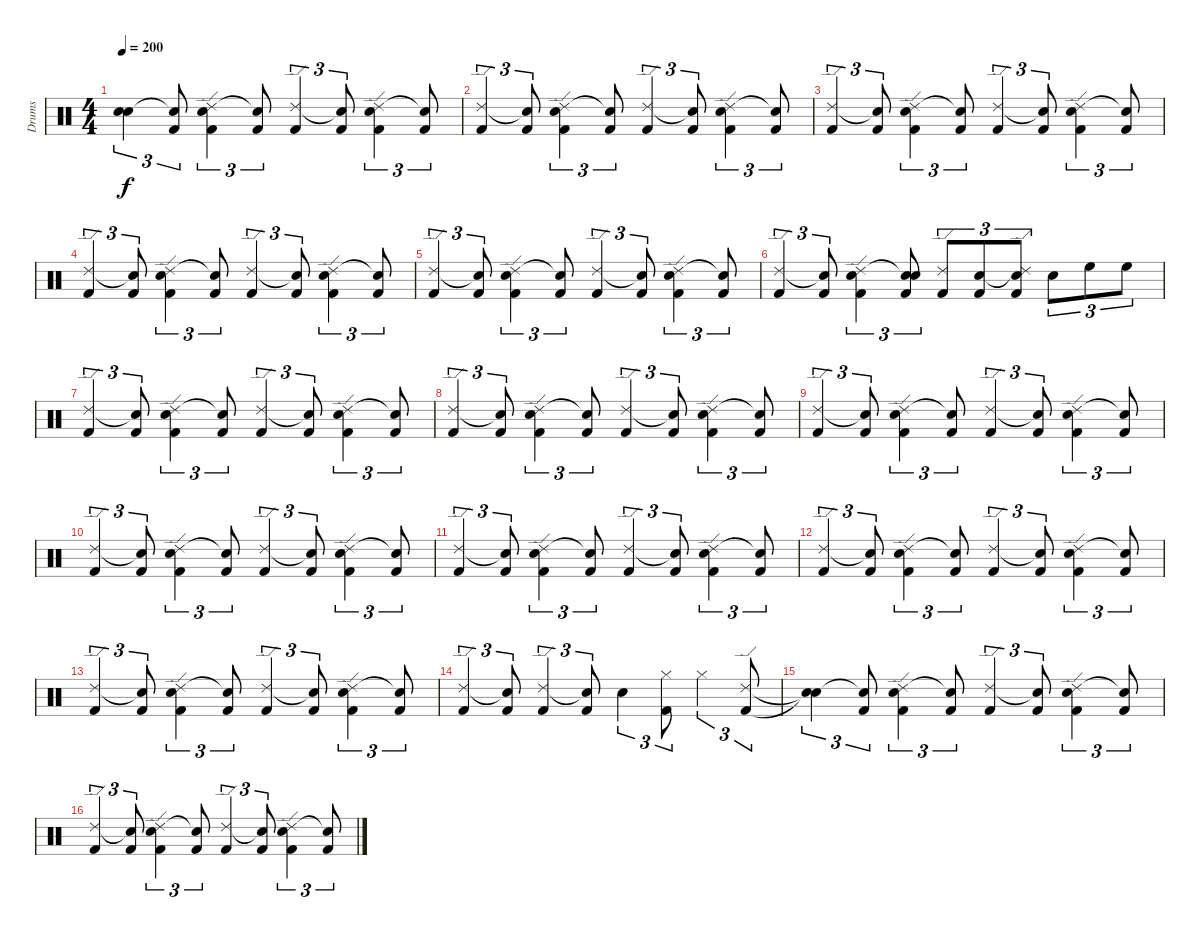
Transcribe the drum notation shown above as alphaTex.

\track ("Drums" "Drums") {instrument percussion}
\staff {score}
\articulation defaults
\ts (4 4)
\tempo 200
\clef neutral
\ks c
("Snare (hit)"{t} "Snare (hit)"{t}).4{tu (3 2) dy f} ("Snare (hit)"{t} "Kick (hit) 2").8{tu (3 2)} ("Ride (edge) 2" "Snare (hit) 2" "Kick (hit) 2").4{tu (3 2)} ("Snare (hit)"{t} "Kick (hit) 2").8{tu (3 2)} ("Ride (edge) 2" "Kick (hit) 2").4{tu (3 2)} ("Snare (hit)"{t} "Kick (hit) 2").8{tu (3 2)} ("Ride (edge) 2" "Snare (hit) 2" "Kick (hit) 2").4{tu (3 2)} ("Snare (hit)"{t} "Kick (hit) 2").8{tu (3 2)} |
("Ride (edge) 2" "Kick (hit) 2").4{tu (3 2)} ("Snare (hit)"{t} "Kick (hit) 2").8{tu (3 2)} ("Ride (edge) 2" "Snare (hit) 2" "Kick (hit) 2").4{tu (3 2)} ("Snare (hit)"{t} "Kick (hit) 2").8{tu (3 2)} ("Ride (edge) 2" "Kick (hit) 2").4{tu (3 2)} ("Snare (hit)"{t} "Kick (hit) 2").8{tu (3 2)} ("Ride (edge) 2" "Snare (hit) 2" "Kick (hit) 2").4{tu (3 2)} ("Snare (hit)"{t} "Kick (hit) 2").8{tu (3 2)} |
("Ride (edge) 2" "Kick (hit) 2").4{tu (3 2)} ("Snare (hit)"{t} "Kick (hit) 2").8{tu (3 2)} ("Ride (edge) 2" "Snare (hit) 2" "Kick (hit) 2").4{tu (3 2)} ("Snare (hit)"{t} "Kick (hit) 2").8{tu (3 2)} ("Ride (edge) 2" "Kick (hit) 2").4{tu (3 2)} ("Snare (hit)"{t} "Kick (hit) 2").8{tu (3 2)} ("Ride (edge) 2" "Snare (hit) 2" "Kick (hit) 2").4{tu (3 2)} ("Snare (hit)"{t} "Kick (hit) 2").8{tu (3 2)} |
("Ride (edge) 2" "Kick (hit) 2").4{tu (3 2)} ("Snare (hit)"{t} "Kick (hit) 2").8{tu (3 2)} ("Ride (edge) 2" "Snare (hit) 2" "Kick (hit) 2").4{tu (3 2)} ("Snare (hit)"{t} "Kick (hit) 2").8{tu (3 2)} ("Ride (edge) 2" "Kick (hit) 2").4{tu (3 2)} ("Snare (hit)"{t} "Kick (hit) 2").8{tu (3 2)} ("Ride (edge) 2" "Snare (hit) 2" "Kick (hit) 2").4{tu (3 2)} ("Snare (hit)"{t} "Kick (hit) 2").8{tu (3 2)} |
("Ride (edge) 2" "Kick (hit) 2").4{tu (3 2)} ("Snare (hit)"{t} "Kick (hit) 2").8{tu (3 2)} ("Ride (edge) 2" "Snare (hit) 2" "Kick (hit) 2").4{tu (3 2)} ("Snare (hit)"{t} "Kick (hit) 2").8{tu (3 2)} ("Ride (edge) 2" "Kick (hit) 2").4{tu (3 2)} ("Snare (hit)"{t} "Kick (hit) 2").8{tu (3 2)} ("Ride (edge) 2" "Snare (hit) 2" "Kick (hit) 2").4{tu (3 2)} ("Snare (hit)"{t} "Kick (hit) 2").8{tu (3 2)} |
("Ride (edge) 2" "Kick (hit) 2").4{tu (3 2)} ("Snare (hit)"{t} "Kick (hit) 2").8{tu (3 2)} ("Ride (edge) 2" "Snare (hit) 2" "Kick (hit) 2").4{tu (3 2)} ("Snare (hit)"{t} "Snare (hit) 2" "Kick (hit) 2").8{tu (3 2)} ("Ride (edge) 2" "Kick (hit) 2").8{tu (3 2)} ("Snare (hit) 2" "Kick (hit) 2").8{tu (3 2)} ("Ride (edge) 2"{t} "Snare (hit) 2" "Kick (hit) 2").8{tu (3 2)} "Snare (hit) 2".8{tu (3 2)} "High Floor Tom (hit)".8{tu (3 2)} "High Floor Tom (hit)".8{tu (3 2)} |
("Ride (edge) 2" "Kick (hit) 2").4{tu (3 2)} ("Snare (hit)"{t} "Kick (hit) 2").8{tu (3 2)} ("Ride (edge) 2" "Snare (hit) 2" "Kick (hit) 2").4{tu (3 2)} ("Snare (hit)"{t} "Kick (hit) 2").8{tu (3 2)} ("Ride (edge) 2" "Kick (hit) 2").4{tu (3 2)} ("Snare (hit)"{t} "Kick (hit) 2").8{tu (3 2)} ("Ride (edge) 2" "Snare (hit) 2" "Kick (hit) 2").4{tu (3 2)} ("Snare (hit)"{t} "Kick (hit) 2").8{tu (3 2)} |
("Ride (edge) 2" "Kick (hit) 2").4{tu (3 2)} ("Snare (hit)"{t} "Kick (hit) 2").8{tu (3 2)} ("Ride (edge) 2" "Snare (hit) 2" "Kick (hit) 2").4{tu (3 2)} ("Snare (hit)"{t} "Kick (hit) 2").8{tu (3 2)} ("Ride (edge) 2" "Kick (hit) 2").4{tu (3 2)} ("Snare (hit)"{t} "Kick (hit) 2").8{tu (3 2)} ("Ride (edge) 2" "Snare (hit) 2" "Kick (hit) 2").4{tu (3 2)} ("Snare (hit)"{t} "Kick (hit) 2").8{tu (3 2)} |
("Ride (edge) 2" "Kick (hit) 2").4{tu (3 2)} ("Snare (hit)"{t} "Kick (hit) 2").8{tu (3 2)} ("Ride (edge) 2" "Snare (hit) 2" "Kick (hit) 2").4{tu (3 2)} ("Snare (hit)"{t} "Kick (hit) 2").8{tu (3 2)} ("Ride (edge) 2" "Kick (hit) 2").4{tu (3 2)} ("Snare (hit)"{t} "Kick (hit) 2").8{tu (3 2)} ("Ride (edge) 2" "Snare (hit) 2" "Kick (hit) 2").4{tu (3 2)} ("Snare (hit)"{t} "Kick (hit) 2").8{tu (3 2)} |
("Ride (edge) 2" "Kick (hit) 2").4{tu (3 2)} ("Snare (hit)"{t} "Kick (hit) 2").8{tu (3 2)} ("Ride (edge) 2" "Snare (hit) 2" "Kick (hit) 2").4{tu (3 2)} ("Snare (hit)"{t} "Kick (hit) 2").8{tu (3 2)} ("Ride (edge) 2" "Kick (hit) 2").4{tu (3 2)} ("Snare (hit)"{t} "Kick (hit) 2").8{tu (3 2)} ("Ride (edge) 2" "Snare (hit) 2" "Kick (hit) 2").4{tu (3 2)} ("Snare (hit)"{t} "Kick (hit) 2").8{tu (3 2)} |
("Ride (edge) 2" "Kick (hit) 2").4{tu (3 2)} ("Snare (hit)"{t} "Kick (hit) 2").8{tu (3 2)} ("Ride (edge) 2" "Snare (hit) 2" "Kick (hit) 2").4{tu (3 2)} ("Snare (hit)"{t} "Kick (hit) 2").8{tu (3 2)} ("Ride (edge) 2" "Kick (hit) 2").4{tu (3 2)} ("Snare (hit)"{t} "Kick (hit) 2").8{tu (3 2)} ("Ride (edge) 2" "Snare (hit) 2" "Kick (hit) 2").4{tu (3 2)} ("Snare (hit)"{t} "Kick (hit) 2").8{tu (3 2)} |
("Ride (edge) 2" "Kick (hit) 2").4{tu (3 2)} ("Snare (hit)"{t} "Kick (hit) 2").8{tu (3 2)} ("Ride (edge) 2" "Snare (hit) 2" "Kick (hit) 2").4{tu (3 2)} ("Snare (hit)"{t} "Kick (hit) 2").8{tu (3 2)} ("Ride (edge) 2" "Kick (hit) 2").4{tu (3 2)} ("Snare (hit)"{t} "Kick (hit) 2").8{tu (3 2)} ("Ride (edge) 2" "Snare (hit) 2" "Kick (hit) 2").4{tu (3 2)} ("Snare (hit)"{t} "Kick (hit) 2").8{tu (3 2)} |
("Ride (edge) 2" "Kick (hit) 2").4{tu (3 2)} ("Snare (hit)"{t} "Kick (hit) 2").8{tu (3 2)} ("Ride (edge) 2" "Snare (hit) 2" "Kick (hit) 2").4{tu (3 2)} ("Snare (hit)"{t} "Kick (hit) 2").8{tu (3 2)} ("Ride (edge) 2" "Kick (hit) 2").4{tu (3 2)} ("Snare (hit)"{t} "Kick (hit) 2").8{tu (3 2)} ("Ride (edge) 2" "Snare (hit) 2" "Kick (hit) 2").4{tu (3 2)} ("Snare (hit)"{t} "Kick (hit) 2").8{tu (3 2)} |
("Ride (edge) 2" "Kick (hit) 2").4{tu (3 2)} ("Snare (hit)"{t} "Kick (hit) 2").8{tu (3 2)} ("Ride (edge) 2" "Kick (hit) 2").4{tu (3 2)} ("Snare (hit)"{t} "Kick (hit) 2").8{tu (3 2)} "Snare (hit) 2".4{tu (3 2)} ("Hi-Hat (closed)" "Kick (hit) 2").8{tu (3 2)} "Hi-Hat (closed)".4{tu (3 2)} ("Ride (edge) 2" "Kick (hit) 2").8{tu (3 2)} |
("Snare (hit)"{t} "Snare (hit)"{t}).4{tu (3 2)} ("Snare (hit)"{t} "Kick (hit) 2").8{tu (3 2)} ("Ride (edge) 2" "Snare (hit) 2" "Kick (hit) 2").4{tu (3 2)} ("Snare (hit)"{t} "Kick (hit) 2").8{tu (3 2)} ("Ride (edge) 2" "Kick (hit) 2").4{tu (3 2)} ("Snare (hit)"{t} "Kick (hit) 2").8{tu (3 2)} ("Ride (edge) 2" "Snare (hit) 2" "Kick (hit) 2").4{tu (3 2)} ("Snare (hit)"{t} "Kick (hit) 2").8{tu (3 2)} |
("Ride (edge) 2" "Kick (hit) 2").4{tu (3 2)} ("Snare (hit)"{t} "Kick (hit) 2").8{tu (3 2)} ("Ride (edge) 2" "Snare (hit) 2" "Kick (hit) 2").4{tu (3 2)} ("Snare (hit)"{t} "Kick (hit) 2").8{tu (3 2)} ("Ride (edge) 2" "Kick (hit) 2").4{tu (3 2)} ("Snare (hit)"{t} "Kick (hit) 2").8{tu (3 2)} ("Ride (edge) 2" "Snare (hit) 2" "Kick (hit) 2").4{tu (3 2)} ("Snare (hit)"{t} "Kick (hit) 2").8{tu (3 2)}
